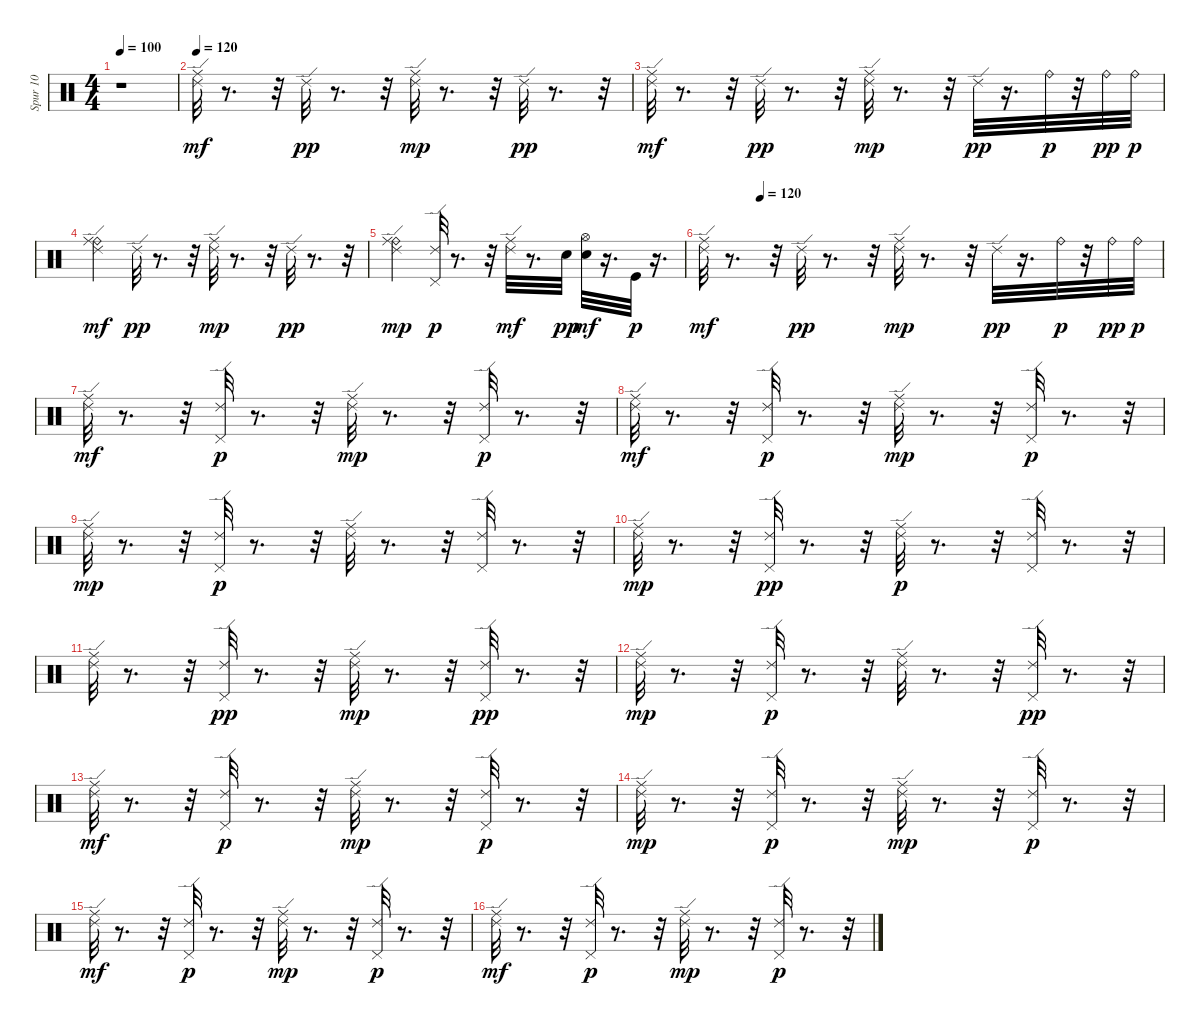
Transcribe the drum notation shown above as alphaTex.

\track ("Spur 10" "Spur 10") {instrument percussion}
\staff {score}
\articulation defaults
\ts (4 4)
\tempo 100
\clef neutral
\ks c
r.1{dy mf} |
\tempo 120
("Ride (middle)" "Ride (edge) 2").32 r.8{d} r.32 "Ride (edge) 2".32{dy pp} r.8{d} r.32 ("Ride (middle)" "Ride (edge) 2").32{dy mp} r.8{d} r.32 "Ride (edge) 2".32{dy pp} r.8{d} r.32 |
("Ride (middle)" "Ride (edge) 2").32{dy mf} r.8{d} r.32 "Ride (edge) 2".32{dy pp} r.8{d} r.32 ("Ride (middle)" "Ride (edge) 2").32{dy mp} r.8{d} r.32 "Ride (edge) 2".32{dy pp} r.16{d} "Ride (bell)".32{dy p} r.32 "Ride (bell)".32{dy pp} "Ride (bell)".32{dy p} |
("Ride (bell)" "Ride (middle)" "Ride (edge) 2").4{dy mf} "Ride (edge) 2".32{dy pp} r.8{d} r.32 ("Ride (middle)" "Ride (edge) 2").32{dy mp} r.8{d} r.32 "Ride (edge) 2".32{dy pp} r.8{d} r.32 |
("Ride (bell)" "Ride (middle)" "Ride (edge) 2").4{dy mp} ("Ride (edge) 2" "Pedal Hi-Hat (hit)").32{dy p} r.8{d} r.32 ("Ride (middle)" "Ride (edge) 2").32{dy mf} r.8{d} "Snare (hit) 2".32{dy pp} ("Hi-Hat (open)" "Electric Snare (hit)").32{dy mf} r.16{d} "Kick (hit)".32{dy p} r.16{d} |
\tempo (120 0.125)
("Ride (middle)" "Ride (edge) 2").32{dy mf} r.8{d} r.32 "Ride (edge) 2".32{dy pp} r.8{d} r.32 ("Ride (middle)" "Ride (edge) 2").32{dy mp} r.8{d} r.32 "Ride (edge) 2".32{dy pp} r.16{d} "Ride (bell)".32{dy p} r.32 "Ride (bell)".32{dy pp} "Ride (bell)".32{dy p} |
("Ride (middle)" "Ride (edge) 2").32{dy mf} r.8{d} r.32 ("Ride (edge) 2" "Pedal Hi-Hat (hit)").32{dy p} r.8{d} r.32 ("Ride (middle)" "Ride (edge) 2").32{dy mp} r.8{d} r.32 ("Ride (edge) 2" "Pedal Hi-Hat (hit)").32{dy p} r.8{d} r.32 |
("Ride (middle)" "Ride (edge) 2").32{dy mf} r.8{d} r.32 ("Ride (edge) 2" "Pedal Hi-Hat (hit)").32{dy p} r.8{d} r.32 ("Ride (middle)" "Ride (edge) 2").32{dy mp} r.8{d} r.32 ("Ride (edge) 2" "Pedal Hi-Hat (hit)").32{dy p} r.8{d} r.32 |
("Ride (edge) 2" "Ride (middle)").32{dy mp} r.8{d} r.32 ("Pedal Hi-Hat (hit)" "Ride (edge) 2").32{dy p} r.8{d} r.32 ("Ride (edge) 2" "Ride (middle)").32 r.8{d} r.32 ("Pedal Hi-Hat (hit)" "Ride (edge) 2").32 r.8{d} r.32 |
("Ride (edge) 2" "Ride (middle)").32{dy mp} r.8{d} r.32 ("Pedal Hi-Hat (hit)" "Ride (edge) 2").32{dy pp} r.8{d} r.32 ("Ride (edge) 2" "Ride (middle)").32{dy p} r.8{d} r.32 ("Pedal Hi-Hat (hit)" "Ride (edge) 2").32 r.8{d} r.32 |
("Ride (edge) 2" "Ride (middle)").32 r.8{d} r.32 ("Pedal Hi-Hat (hit)" "Ride (edge) 2").32{dy pp} r.8{d} r.32 ("Ride (middle)" "Ride (edge) 2").32{dy mp} r.8{d} r.32 ("Pedal Hi-Hat (hit)" "Ride (edge) 2").32{dy pp} r.8{d} r.32 |
("Ride (edge) 2" "Ride (middle)").32{dy mp} r.8{d} r.32 ("Pedal Hi-Hat (hit)" "Ride (edge) 2").32{dy p} r.8{d} r.32 ("Ride (edge) 2" "Ride (middle)").32 r.8{d} r.32 ("Pedal Hi-Hat (hit)" "Ride (edge) 2").32{dy pp} r.8{d} r.32 |
("Ride (middle)" "Ride (edge) 2").32{dy mf} r.8{d} r.32 ("Ride (edge) 2" "Pedal Hi-Hat (hit)").32{dy p} r.8{d} r.32 ("Ride (middle)" "Ride (edge) 2").32{dy mp} r.8{d} r.32 ("Ride (edge) 2" "Pedal Hi-Hat (hit)").32{dy p} r.8{d} r.32 |
("Ride (middle)" "Ride (edge) 2").32{dy mp} r.8{d} r.32 ("Ride (edge) 2" "Pedal Hi-Hat (hit)").32{dy p} r.8{d} r.32 ("Ride (middle)" "Ride (edge) 2").32{dy mp} r.8{d} r.32 ("Ride (edge) 2" "Pedal Hi-Hat (hit)").32{dy p} r.8{d} r.32 |
("Ride (middle)" "Ride (edge) 2").32{dy mf} r.8{d} r.32 ("Ride (edge) 2" "Pedal Hi-Hat (hit)").32{dy p} r.8{d} r.32 ("Ride (middle)" "Ride (edge) 2").32{dy mp} r.8{d} r.32 ("Ride (edge) 2" "Pedal Hi-Hat (hit)").32{dy p} r.8{d} r.32 |
("Ride (middle)" "Ride (edge) 2").32{dy mf} r.8{d} r.32 ("Ride (edge) 2" "Pedal Hi-Hat (hit)").32{dy p} r.8{d} r.32 ("Ride (middle)" "Ride (edge) 2").32{dy mp} r.8{d} r.32 ("Ride (edge) 2" "Pedal Hi-Hat (hit)").32{dy p} r.8{d} r.32
